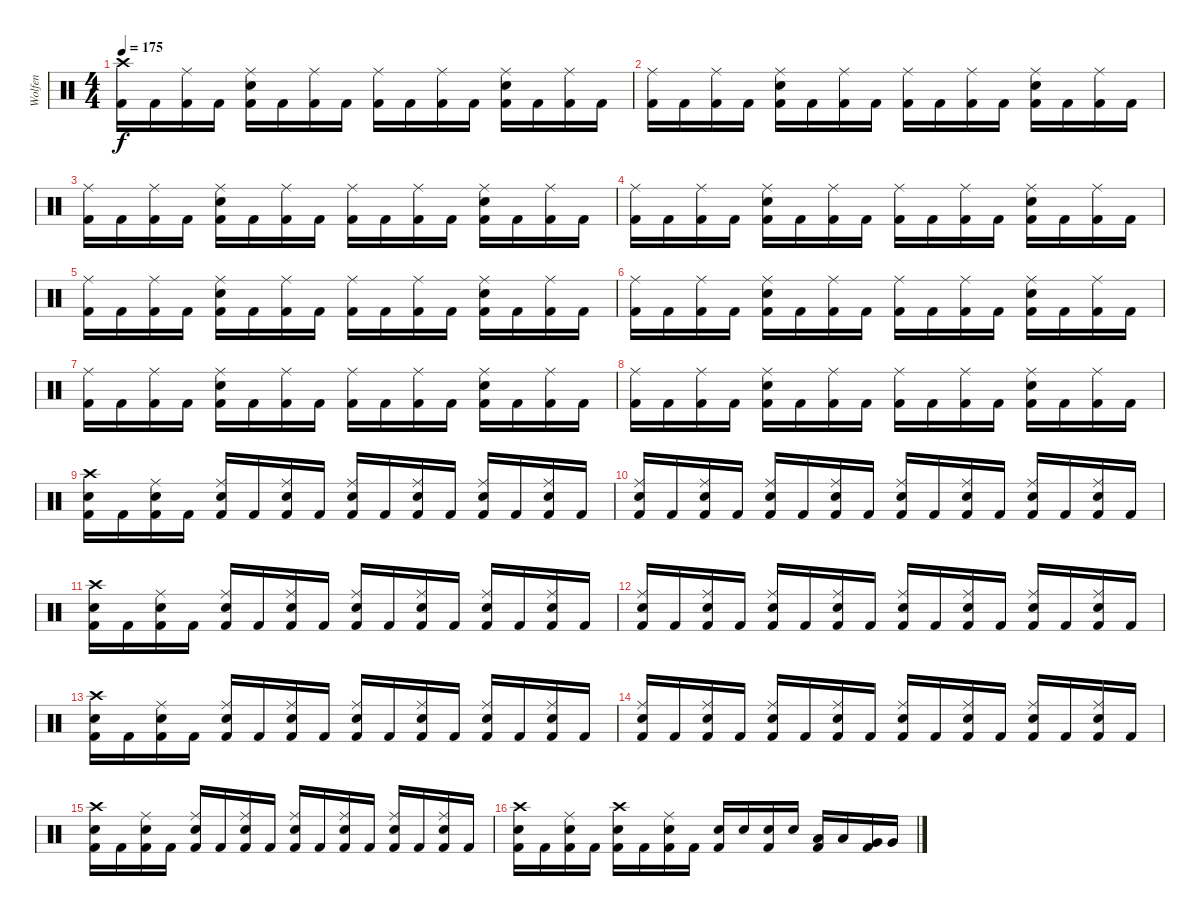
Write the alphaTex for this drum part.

\track ("Wolfen" "Wolfen") {instrument percussion}
\staff {score}
\articulation defaults
\ts (4 4)
\tempo 175
\clef neutral
\ks c
("Crash high (hit)" "Kick (hit) 2").16{dy f} "Kick (hit) 2".16 ("Ride (middle)" "Kick (hit) 2").16 "Kick (hit) 2".16 ("Ride (middle)" "Electric Snare (hit)" "Kick (hit) 2").16 "Kick (hit) 2".16 ("Ride (middle)" "Kick (hit) 2").16 "Kick (hit) 2".16 ("Ride (middle)" "Kick (hit) 2").16 "Kick (hit) 2".16 ("Ride (middle)" "Kick (hit) 2").16 "Kick (hit) 2".16 ("Ride (middle)" "Electric Snare (hit)" "Kick (hit) 2").16 "Kick (hit) 2".16 ("Ride (middle)" "Kick (hit) 2").16 "Kick (hit) 2".16 |
("Ride (middle)" "Kick (hit) 2").16 "Kick (hit) 2".16 ("Ride (middle)" "Kick (hit) 2").16 "Kick (hit) 2".16 ("Ride (middle)" "Electric Snare (hit)" "Kick (hit) 2").16 "Kick (hit) 2".16 ("Ride (middle)" "Kick (hit) 2").16 "Kick (hit) 2".16 ("Ride (middle)" "Kick (hit) 2").16 "Kick (hit) 2".16 ("Ride (middle)" "Kick (hit) 2").16 "Kick (hit) 2".16 ("Ride (middle)" "Electric Snare (hit)" "Kick (hit) 2").16 "Kick (hit) 2".16 ("Ride (middle)" "Kick (hit) 2").16 "Kick (hit) 2".16 |
("Ride (middle)" "Kick (hit) 2").16 "Kick (hit) 2".16 ("Ride (middle)" "Kick (hit) 2").16 "Kick (hit) 2".16 ("Ride (middle)" "Electric Snare (hit)" "Kick (hit) 2").16 "Kick (hit) 2".16 ("Ride (middle)" "Kick (hit) 2").16 "Kick (hit) 2".16 ("Ride (middle)" "Kick (hit) 2").16 "Kick (hit) 2".16 ("Ride (middle)" "Kick (hit) 2").16 "Kick (hit) 2".16 ("Ride (middle)" "Electric Snare (hit)" "Kick (hit) 2").16 "Kick (hit) 2".16 ("Ride (middle)" "Kick (hit) 2").16 "Kick (hit) 2".16 |
("Ride (middle)" "Kick (hit) 2").16 "Kick (hit) 2".16 ("Ride (middle)" "Kick (hit) 2").16 "Kick (hit) 2".16 ("Ride (middle)" "Electric Snare (hit)" "Kick (hit) 2").16 "Kick (hit) 2".16 ("Ride (middle)" "Kick (hit) 2").16 "Kick (hit) 2".16 ("Ride (middle)" "Kick (hit) 2").16 "Kick (hit) 2".16 ("Ride (middle)" "Kick (hit) 2").16 "Kick (hit) 2".16 ("Ride (middle)" "Electric Snare (hit)" "Kick (hit) 2").16 "Kick (hit) 2".16 ("Ride (middle)" "Kick (hit) 2").16 "Kick (hit) 2".16 |
("Ride (middle)" "Kick (hit) 2").16 "Kick (hit) 2".16 ("Ride (middle)" "Kick (hit) 2").16 "Kick (hit) 2".16 ("Ride (middle)" "Electric Snare (hit)" "Kick (hit) 2").16 "Kick (hit) 2".16 ("Ride (middle)" "Kick (hit) 2").16 "Kick (hit) 2".16 ("Ride (middle)" "Kick (hit) 2").16 "Kick (hit) 2".16 ("Ride (middle)" "Kick (hit) 2").16 "Kick (hit) 2".16 ("Ride (middle)" "Electric Snare (hit)" "Kick (hit) 2").16 "Kick (hit) 2".16 ("Ride (middle)" "Kick (hit) 2").16 "Kick (hit) 2".16 |
("Ride (middle)" "Kick (hit) 2").16 "Kick (hit) 2".16 ("Ride (middle)" "Kick (hit) 2").16 "Kick (hit) 2".16 ("Ride (middle)" "Electric Snare (hit)" "Kick (hit) 2").16 "Kick (hit) 2".16 ("Ride (middle)" "Kick (hit) 2").16 "Kick (hit) 2".16 ("Ride (middle)" "Kick (hit) 2").16 "Kick (hit) 2".16 ("Ride (middle)" "Kick (hit) 2").16 "Kick (hit) 2".16 ("Ride (middle)" "Electric Snare (hit)" "Kick (hit) 2").16 "Kick (hit) 2".16 ("Ride (middle)" "Kick (hit) 2").16 "Kick (hit) 2".16 |
("Ride (middle)" "Kick (hit) 2").16 "Kick (hit) 2".16 ("Ride (middle)" "Kick (hit) 2").16 "Kick (hit) 2".16 ("Ride (middle)" "Electric Snare (hit)" "Kick (hit) 2").16 "Kick (hit) 2".16 ("Ride (middle)" "Kick (hit) 2").16 "Kick (hit) 2".16 ("Ride (middle)" "Kick (hit) 2").16 "Kick (hit) 2".16 ("Ride (middle)" "Kick (hit) 2").16 "Kick (hit) 2".16 ("Ride (middle)" "Electric Snare (hit)" "Kick (hit) 2").16 "Kick (hit) 2".16 ("Ride (middle)" "Kick (hit) 2").16 "Kick (hit) 2".16 |
("Ride (middle)" "Kick (hit) 2").16 "Kick (hit) 2".16 ("Ride (middle)" "Kick (hit) 2").16 "Kick (hit) 2".16 ("Ride (middle)" "Electric Snare (hit)" "Kick (hit) 2").16 "Kick (hit) 2".16 ("Ride (middle)" "Kick (hit) 2").16 "Kick (hit) 2".16 ("Ride (middle)" "Kick (hit) 2").16 "Kick (hit) 2".16 ("Ride (middle)" "Kick (hit) 2").16 "Kick (hit) 2".16 ("Ride (middle)" "Electric Snare (hit)" "Kick (hit) 2").16 "Kick (hit) 2".16 ("Ride (middle)" "Kick (hit) 2").16 "Kick (hit) 2".16 |
("Crash high (hit)" "Electric Snare (hit)" "Kick (hit) 2").16 "Kick (hit) 2".16 ("Ride (middle)" "Electric Snare (hit)" "Kick (hit) 2").16 "Kick (hit) 2".16 ("Ride (middle)" "Electric Snare (hit)" "Kick (hit) 2").16 "Kick (hit) 2".16 ("Ride (middle)" "Electric Snare (hit)" "Kick (hit) 2").16 "Kick (hit) 2".16 ("Ride (middle)" "Electric Snare (hit)" "Kick (hit) 2").16 "Kick (hit) 2".16 ("Ride (middle)" "Electric Snare (hit)" "Kick (hit) 2").16 "Kick (hit) 2".16 ("Ride (middle)" "Electric Snare (hit)" "Kick (hit) 2").16 "Kick (hit) 2".16 ("Ride (middle)" "Electric Snare (hit)" "Kick (hit) 2").16 "Kick (hit) 2".16 |
("Ride (middle)" "Electric Snare (hit)" "Kick (hit) 2").16 "Kick (hit) 2".16 ("Ride (middle)" "Electric Snare (hit)" "Kick (hit) 2").16 "Kick (hit) 2".16 ("Ride (middle)" "Electric Snare (hit)" "Kick (hit) 2").16 "Kick (hit) 2".16 ("Ride (middle)" "Electric Snare (hit)" "Kick (hit) 2").16 "Kick (hit) 2".16 ("Ride (middle)" "Electric Snare (hit)" "Kick (hit) 2").16 "Kick (hit) 2".16 ("Ride (middle)" "Electric Snare (hit)" "Kick (hit) 2").16 "Kick (hit) 2".16 ("Ride (middle)" "Electric Snare (hit)" "Kick (hit) 2").16 "Kick (hit) 2".16 ("Ride (middle)" "Electric Snare (hit)" "Kick (hit) 2").16 "Kick (hit) 2".16 |
("Crash high (hit)" "Electric Snare (hit)" "Kick (hit) 2").16 "Kick (hit) 2".16 ("Ride (middle)" "Electric Snare (hit)" "Kick (hit) 2").16 "Kick (hit) 2".16 ("Ride (middle)" "Electric Snare (hit)" "Kick (hit) 2").16 "Kick (hit) 2".16 ("Ride (middle)" "Electric Snare (hit)" "Kick (hit) 2").16 "Kick (hit) 2".16 ("Ride (middle)" "Electric Snare (hit)" "Kick (hit) 2").16 "Kick (hit) 2".16 ("Ride (middle)" "Electric Snare (hit)" "Kick (hit) 2").16 "Kick (hit) 2".16 ("Ride (middle)" "Electric Snare (hit)" "Kick (hit) 2").16 "Kick (hit) 2".16 ("Ride (middle)" "Electric Snare (hit)" "Kick (hit) 2").16 "Kick (hit) 2".16 |
("Ride (middle)" "Electric Snare (hit)" "Kick (hit) 2").16 "Kick (hit) 2".16 ("Ride (middle)" "Electric Snare (hit)" "Kick (hit) 2").16 "Kick (hit) 2".16 ("Ride (middle)" "Electric Snare (hit)" "Kick (hit) 2").16 "Kick (hit) 2".16 ("Ride (middle)" "Electric Snare (hit)" "Kick (hit) 2").16 "Kick (hit) 2".16 ("Ride (middle)" "Electric Snare (hit)" "Kick (hit) 2").16 "Kick (hit) 2".16 ("Ride (middle)" "Electric Snare (hit)" "Kick (hit) 2").16 "Kick (hit) 2".16 ("Ride (middle)" "Electric Snare (hit)" "Kick (hit) 2").16 "Kick (hit) 2".16 ("Ride (middle)" "Electric Snare (hit)" "Kick (hit) 2").16 "Kick (hit) 2".16 |
("Crash high (hit)" "Electric Snare (hit)" "Kick (hit) 2").16 "Kick (hit) 2".16 ("Ride (middle)" "Electric Snare (hit)" "Kick (hit) 2").16 "Kick (hit) 2".16 ("Ride (middle)" "Electric Snare (hit)" "Kick (hit) 2").16 "Kick (hit) 2".16 ("Ride (middle)" "Electric Snare (hit)" "Kick (hit) 2").16 "Kick (hit) 2".16 ("Ride (middle)" "Electric Snare (hit)" "Kick (hit) 2").16 "Kick (hit) 2".16 ("Ride (middle)" "Electric Snare (hit)" "Kick (hit) 2").16 "Kick (hit) 2".16 ("Ride (middle)" "Electric Snare (hit)" "Kick (hit) 2").16 "Kick (hit) 2".16 ("Ride (middle)" "Electric Snare (hit)" "Kick (hit) 2").16 "Kick (hit) 2".16 |
("Ride (middle)" "Electric Snare (hit)" "Kick (hit) 2").16 "Kick (hit) 2".16 ("Ride (middle)" "Electric Snare (hit)" "Kick (hit) 2").16 "Kick (hit) 2".16 ("Ride (middle)" "Electric Snare (hit)" "Kick (hit) 2").16 "Kick (hit) 2".16 ("Ride (middle)" "Electric Snare (hit)" "Kick (hit) 2").16 "Kick (hit) 2".16 ("Ride (middle)" "Electric Snare (hit)" "Kick (hit) 2").16 "Kick (hit) 2".16 ("Ride (middle)" "Electric Snare (hit)" "Kick (hit) 2").16 "Kick (hit) 2".16 ("Ride (middle)" "Electric Snare (hit)" "Kick (hit) 2").16 "Kick (hit) 2".16 ("Ride (middle)" "Electric Snare (hit)" "Kick (hit) 2").16 "Kick (hit) 2".16 |
("Crash high (hit)" "Electric Snare (hit)" "Kick (hit) 2").16 "Kick (hit) 2".16 ("Ride (middle)" "Electric Snare (hit)" "Kick (hit) 2").16 "Kick (hit) 2".16 ("Ride (middle)" "Electric Snare (hit)" "Kick (hit) 2").16 "Kick (hit) 2".16 ("Ride (middle)" "Electric Snare (hit)" "Kick (hit) 2").16 "Kick (hit) 2".16 ("Ride (middle)" "Electric Snare (hit)" "Kick (hit) 2").16 "Kick (hit) 2".16 ("Ride (middle)" "Electric Snare (hit)" "Kick (hit) 2").16 "Kick (hit) 2".16 ("Ride (middle)" "Electric Snare (hit)" "Kick (hit) 2").16 "Kick (hit) 2".16 ("Ride (middle)" "Electric Snare (hit)" "Kick (hit) 2").16 "Kick (hit) 2".16 |
("Crash high (hit)" "Electric Snare (hit)" "Kick (hit) 2").16 "Kick (hit) 2".16 ("Ride (middle)" "Electric Snare (hit)" "Kick (hit) 2").16 "Kick (hit) 2".16 ("Crash high (hit)" "Electric Snare (hit)" "Kick (hit) 2").16 "Kick (hit) 2".16 ("Ride (middle)" "Electric Snare (hit)" "Kick (hit) 2").16 "Kick (hit) 2".16 ("Electric Snare (hit)" "Kick (hit) 2").16 "Electric Snare (hit)".16 ("Electric Snare (hit)" "Kick (hit) 2").16 "Electric Snare (hit)".16 ("Low Tom (hit)" "Kick (hit) 2").16 "Low Tom (hit)".16 ("Very Low Tom (hit)" "Kick (hit) 2").16 "Very Low Tom (hit)".16
